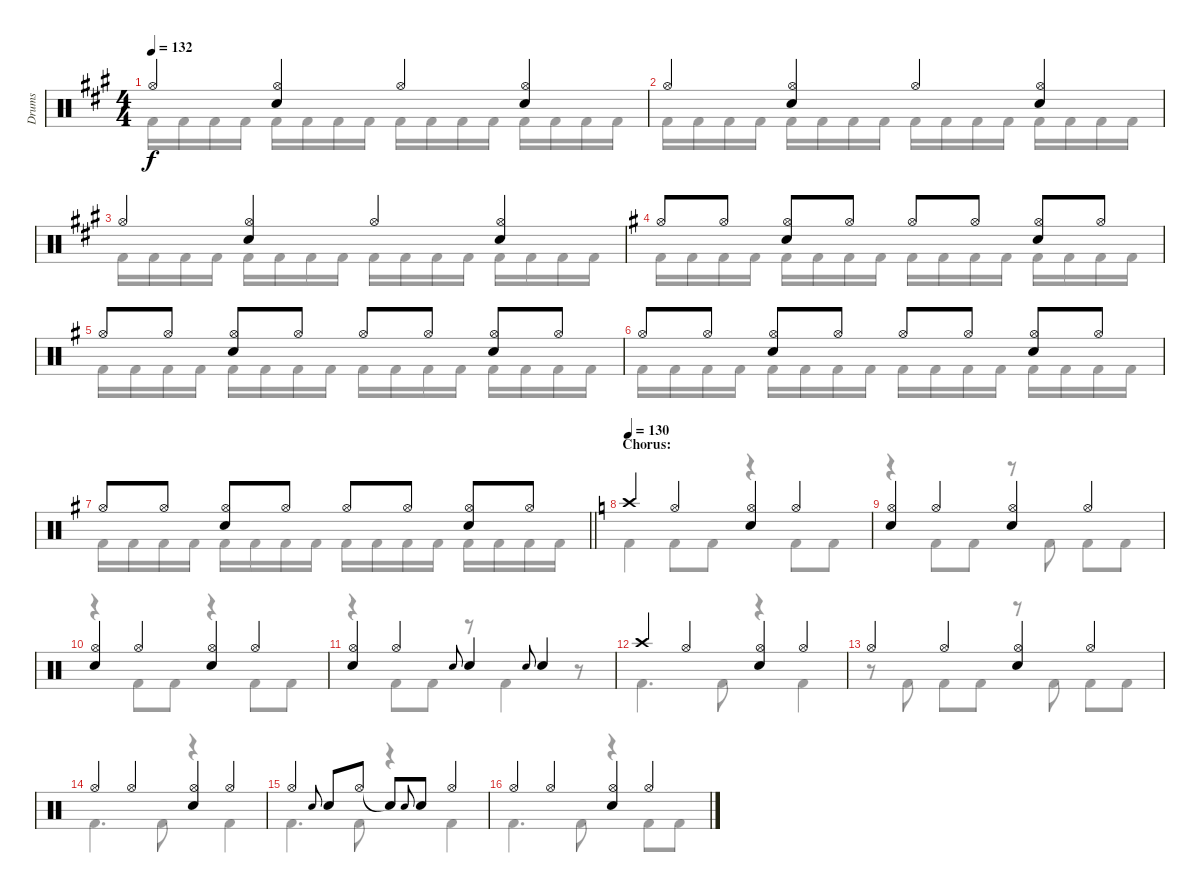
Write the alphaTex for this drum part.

\track ("Drums" "Drums") {instrument percussion}
\staff {score}
\articulation defaults
\voice
\ts (4 4)
\tempo 132
\clef neutral
\ks a "Hi-Hat (open)".4{dy f}
("Hi-Hat (open)" "Electric Snare (hit)").4 "Hi-Hat (open)".4 ("Hi-Hat (open)" "Electric Snare (hit)").4 |
"Hi-Hat (open)".4 ("Hi-Hat (open)" "Snare (hit)").4 "Hi-Hat (open)".4 ("Hi-Hat (open)" "Electric Snare (hit)").4 |
"Hi-Hat (open)".4 ("Hi-Hat (open)" "Electric Snare (hit)").4 "Hi-Hat (open)".4 ("Hi-Hat (open)" "Electric Snare (hit)").4 |
\ks g "Hi-Hat (open)".8 "Hi-Hat (open)".8
("Hi-Hat (open)" "Electric Snare (hit)").8 "Hi-Hat (open)".8 "Hi-Hat (open)".8 "Hi-Hat (open)".8 ("Hi-Hat (open)" "Electric Snare (hit)").8 "Hi-Hat (open)".8 |
"Hi-Hat (open)".8 "Hi-Hat (open)".8 ("Hi-Hat (open)" "Electric Snare (hit)").8 "Hi-Hat (open)".8 "Hi-Hat (open)".8 "Hi-Hat (open)".8 ("Hi-Hat (open)" "Electric Snare (hit)").8 "Hi-Hat (open)".8 |
"Hi-Hat (open)".8 "Hi-Hat (open)".8 ("Hi-Hat (open)" "Electric Snare (hit)").8 "Hi-Hat (open)".8 "Hi-Hat (open)".8 "Hi-Hat (open)".8 ("Hi-Hat (open)" "Electric Snare (hit)").8 "Hi-Hat (open)".8 |
\barLineRight lightlight "Hi-Hat (open)".8 "Hi-Hat (open)".8
("Hi-Hat (open)" "Electric Snare (hit)").8 "Hi-Hat (open)".8 "Hi-Hat (open)".8 "Hi-Hat (open)".8 ("Hi-Hat (open)" "Electric Snare (hit)").8 "Hi-Hat (open)".8 |
\section ("" "Chorus:")
\tempo 130
\ks c "Crash high (hit)".4 "Hi-Hat (open)".4
("Hi-Hat (open)" "Electric Snare (hit)").4 "Hi-Hat (open)".4 |
("Hi-Hat (open)" "Electric Snare (hit)").4 "Hi-Hat (open)".4 ("Hi-Hat (open)" "Electric Snare (hit)").4 "Hi-Hat (open)".4 |
("Hi-Hat (open)" "Electric Snare (hit)").4 "Hi-Hat (open)".4 ("Hi-Hat (open)" "Electric Snare (hit)").4 "Hi-Hat (open)".4 |
("Hi-Hat (open)" "Electric Snare (hit)").4 "Hi-Hat (open)".4 "Electric Snare (hit)".8{gr onbeat} "Electric Snare (hit)".4 "Electric Snare (hit)".8{gr onbeat} "Electric Snare (hit)".4 |
"Crash high (hit)".4 "Hi-Hat (open)".4 ("Hi-Hat (open)" "Electric Snare (hit)").4 "Hi-Hat (open)".4 |
"Hi-Hat (open)".4 "Hi-Hat (open)".4 ("Hi-Hat (open)" "Electric Snare (hit)").4 "Hi-Hat (open)".4 |
"Hi-Hat (open)".4 "Hi-Hat (open)".4 ("Hi-Hat (open)" "Electric Snare (hit)").4 "Hi-Hat (open)".4 |
"Hi-Hat (open)".4 "Electric Snare (hit)".8{gr onbeat} "Electric Snare (hit)".8 "Hi-Hat (open)".8 "Snare (hit)"{t}.8 "Electric Snare (hit)".8{gr onbeat} "Electric Snare (hit)".8 "Hi-Hat (open)".4 |
"Hi-Hat (open)".4 "Hi-Hat (open)".4 ("Hi-Hat (open)" "Electric Snare (hit)").4 "Hi-Hat (open)".4
\voice
\clef neutral
\ottava regular
\simile none
\ks a "Kick (hit) 2".16{dy f} "Kick (hit) 2".16 "Kick (hit) 2".16 "Kick (hit) 2".16 "Kick (hit) 2".16 "Kick (hit) 2".16 "Kick (hit) 2".16 "Kick (hit) 2".16 "Kick (hit) 2".16 "Kick (hit) 2".16 "Kick (hit) 2".16 "Kick (hit) 2".16 "Kick (hit) 2".16 "Kick (hit) 2".16 "Kick (hit) 2".16 "Kick (hit) 2".16
|
"Kick (hit) 2".16 "Kick (hit) 2".16 "Kick (hit) 2".16 "Kick (hit) 2".16 "Kick (hit) 2".16 "Kick (hit) 2".16 "Kick (hit) 2".16 "Kick (hit) 2".16 "Kick (hit) 2".16 "Kick (hit) 2".16 "Kick (hit) 2".16 "Kick (hit) 2".16 "Kick (hit) 2".16 "Kick (hit) 2".16 "Kick (hit) 2".16 "Kick (hit) 2".16 |
"Kick (hit) 2".16 "Kick (hit) 2".16 "Kick (hit) 2".16 "Kick (hit) 2".16 "Kick (hit) 2".16 "Kick (hit) 2".16 "Kick (hit) 2".16 "Kick (hit) 2".16 "Kick (hit) 2".16 "Kick (hit) 2".16 "Kick (hit) 2".16 "Kick (hit) 2".16 "Kick (hit) 2".16 "Kick (hit) 2".16 "Kick (hit) 2".16 "Kick (hit) 2".16 |
\ks g "Kick (hit) 2".16 "Kick (hit) 2".16 "Kick (hit) 2".16 "Kick (hit) 2".16 "Kick (hit) 2".16 "Kick (hit) 2".16 "Kick (hit) 2".16 "Kick (hit) 2".16 "Kick (hit) 2".16 "Kick (hit) 2".16 "Kick (hit) 2".16 "Kick (hit) 2".16 "Kick (hit) 2".16 "Kick (hit) 2".16 "Kick (hit) 2".16 "Kick (hit) 2".16
|
"Kick (hit) 2".16 "Kick (hit) 2".16 "Kick (hit) 2".16 "Kick (hit) 2".16 "Kick (hit) 2".16 "Kick (hit) 2".16 "Kick (hit) 2".16 "Kick (hit) 2".16 "Kick (hit) 2".16 "Kick (hit) 2".16 "Kick (hit) 2".16 "Kick (hit) 2".16 "Kick (hit) 2".16 "Kick (hit) 2".16 "Kick (hit) 2".16 "Kick (hit) 2".16 |
"Kick (hit) 2".16 "Kick (hit) 2".16 "Kick (hit) 2".16 "Kick (hit) 2".16 "Kick (hit) 2".16 "Kick (hit) 2".16 "Kick (hit) 2".16 "Kick (hit) 2".16 "Kick (hit) 2".16 "Kick (hit) 2".16 "Kick (hit) 2".16 "Kick (hit) 2".16 "Kick (hit) 2".16 "Kick (hit) 2".16 "Kick (hit) 2".16 "Kick (hit) 2".16 |
\barLineRight lightlight "Kick (hit) 2".16 "Kick (hit) 2".16 "Kick (hit) 2".16 "Kick (hit) 2".16 "Kick (hit) 2".16 "Kick (hit) 2".16 "Kick (hit) 2".16 "Kick (hit) 2".16 "Kick (hit) 2".16 "Kick (hit) 2".16 "Kick (hit) 2".16 "Kick (hit) 2".16 "Kick (hit) 2".16 "Kick (hit) 2".16 "Kick (hit) 2".16 "Kick (hit) 2".16
|
\ks c "Kick (hit) 2".4 "Kick (hit) 2".8 "Kick (hit) 2".8
r.4 "Kick (hit) 2".8 "Kick (hit) 2".8 |
r.4 "Kick (hit) 2".8 "Kick (hit) 2".8 r.8 "Kick (hit) 2".8 "Kick (hit) 2".8 "Kick (hit) 2".8 |
r.4 "Kick (hit) 2".8 "Kick (hit) 2".8 r.4 "Kick (hit) 2".8 "Kick (hit) 2".8 |
r.4 "Kick (hit) 2".8 "Kick (hit) 2".8 r.8 "Kick (hit) 2".4 r.8 |
"Kick (hit) 2".4{d} "Kick (hit) 2".8 r.4 "Kick (hit) 2".4 |
r.8 "Kick (hit) 2".8 "Kick (hit) 2".8 "Kick (hit) 2".8 r.8 "Kick (hit) 2".8 "Kick (hit) 2".8 "Kick (hit) 2".8 |
"Kick (hit) 2".4{d} "Kick (hit) 2".8 r.4 "Kick (hit) 2".4 |
"Kick (hit) 2".4{d} "Kick (hit) 2".8 r.4 "Kick (hit) 2".4 |
"Kick (hit) 2".4{d} "Kick (hit) 2".8 r.4 "Kick (hit) 2".8{beam merge} "Kick (hit) 2".8
